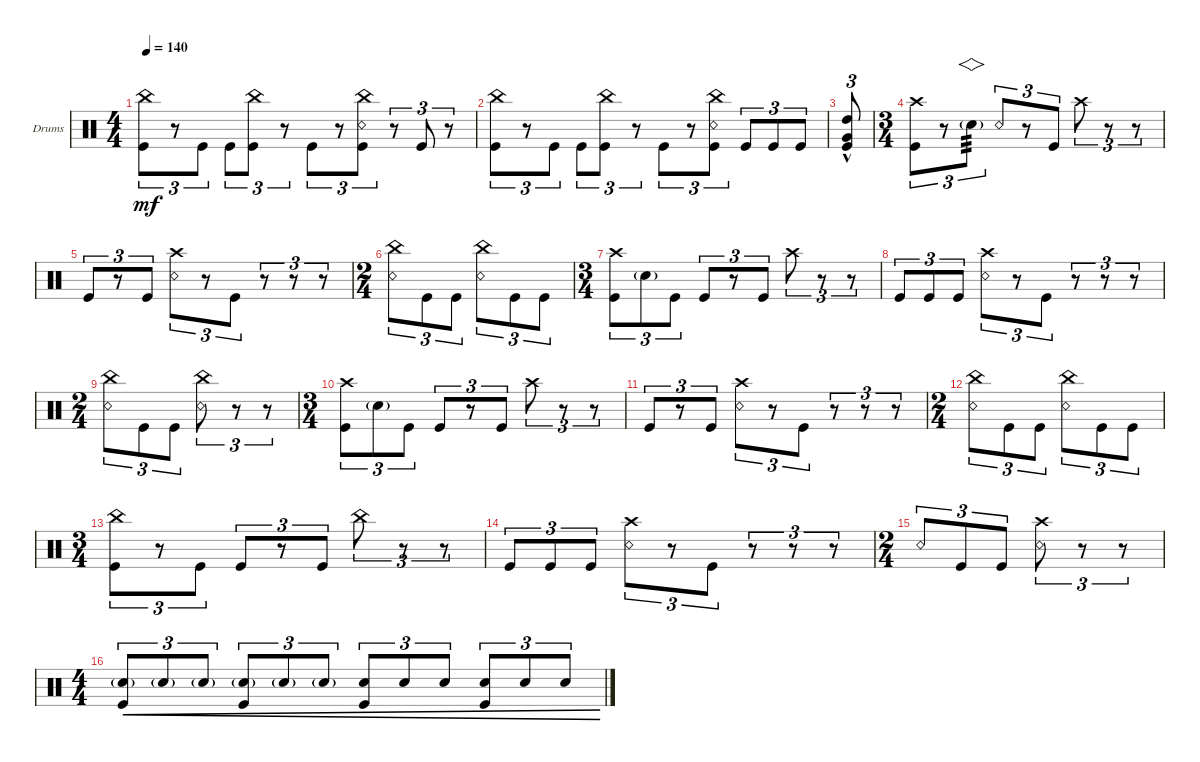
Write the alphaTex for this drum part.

\defaultSystemsLayout 4
\bracketExtendMode groupsimilarinstruments
\firstSystemTrackNameOrientation horizontal
\otherSystemsTrackNameOrientation horizontal
\track ("Drumkit" "Drums") {instrument percussion}
\staff {score}
\articulation defaults
\ts (4 4)
\tempo 140
\clef neutral
\ks c
("China (hit)" "Kick (hit)").8{tu (3 2) dy mf} r.8{tu (3 2)} "Kick (hit)".8{tu (3 2)} "Kick (hit)".8{tu (3 2)} ("Kick (hit)" "China (hit)").8{tu (3 2)} r.8{tu (3 2)} "Kick (hit)".8{tu (3 2)} r.8{tu (3 2)} ("Kick (hit)" "Snare (rim shot)" "China (hit)").8{tu (3 2)} r.8{tu (3 2)} "Kick (hit)".8{tu (3 2)} r.8{tu (3 2)} |
("China (hit)" "Kick (hit)").8{tu (3 2)} r.8{tu (3 2)} "Kick (hit)".8{tu (3 2)} "Kick (hit)".8{tu (3 2)} ("Kick (hit)" "China (hit)").8{tu (3 2)} r.8{tu (3 2)} "Kick (hit)".8{tu (3 2)} r.8{tu (3 2)} ("Kick (hit)" "Snare (rim shot)" "China (hit)").8{tu (3 2)} "Kick (hit)".8{tu (3 2)} "Kick (hit)".8{tu (3 2)} "Kick (hit)".8{tu (3 2)} |
("Kick (hit)"{hac} "Very Low Tom (hit)"{hac} "High Tom (hit)"{hac}).8{tu (3 2)} |
\ts (3 4)
("Kick (hit)" "Crash high (hit)").8{tu (3 2)} r.8{tu (3 2)} "Snare (hit) 2"{g}.8{vs tu (3 2) tp 3} "Snare (rim shot)".8{tu (3 2)} r.8{tu (3 2)} "Kick (hit)".8{tu (3 2)} "Crash high (hit)".8{tu (3 2)} r.8{tu (3 2)} r.8{tu (3 2)} |
"Kick (hit)".8{tu (3 2)} r.8{tu (3 2)} "Kick (hit)".8{tu (3 2)} ("Crash high (hit)" "Snare (rim shot)").8{tu (3 2)} r.8{tu (3 2)} "Kick (hit)".8{tu (3 2)} r.8{tu (3 2)} r.8{tu (3 2)} r.8{tu (3 2)} |
\ts (2 4)
("Snare (rim shot)" "China (hit)").8{tu (3 2)} "Kick (hit)".8{tu (3 2)} "Kick (hit)".8{tu (3 2)} ("Snare (rim shot)" "China (hit)").8{tu (3 2)} "Kick (hit)".8{tu (3 2)} "Kick (hit)".8{tu (3 2)} |
\ts (3 4)
("Kick (hit)" "Crash high (hit)").8{tu (3 2)} "Snare (hit) 2"{g}.8{tu (3 2)} "Kick (hit)".8{tu (3 2)} "Kick (hit)".8{tu (3 2)} r.8{tu (3 2)} "Kick (hit)".8{tu (3 2)} "Crash high (hit)".8{tu (3 2)} r.8{tu (3 2)} r.8{tu (3 2)} |
"Kick (hit)".8{tu (3 2)} "Kick (hit)".8{tu (3 2)} "Kick (hit)".8{tu (3 2)} ("Crash high (hit)" "Snare (rim shot)").8{tu (3 2)} r.8{tu (3 2)} "Kick (hit)".8{tu (3 2)} r.8{tu (3 2)} r.8{tu (3 2)} r.8{tu (3 2)} |
\ts (2 4)
("Snare (rim shot)" "China (hit)").8{tu (3 2)} "Kick (hit)".8{tu (3 2)} "Kick (hit)".8{tu (3 2)} ("Snare (rim shot)" "China (hit)").8{tu (3 2)} r.8{tu (3 2)} r.8{tu (3 2)} |
\ts (3 4)
("Kick (hit)" "Crash high (hit)").8{tu (3 2)} "Snare (hit) 2"{g}.8{tu (3 2)} "Kick (hit)".8{tu (3 2)} "Kick (hit)".8{tu (3 2)} r.8{tu (3 2)} "Kick (hit)".8{tu (3 2)} "Crash high (hit)".8{tu (3 2)} r.8{tu (3 2)} r.8{tu (3 2)} |
"Kick (hit)".8{tu (3 2)} r.8{tu (3 2)} "Kick (hit)".8{tu (3 2)} ("Crash high (hit)" "Snare (rim shot)").8{tu (3 2)} r.8{tu (3 2)} "Kick (hit)".8{tu (3 2)} r.8{tu (3 2)} r.8{tu (3 2)} r.8{tu (3 2)} |
\ts (2 4)
("Snare (rim shot)" "China (hit)").8{tu (3 2)} "Kick (hit)".8{tu (3 2)} "Kick (hit)".8{tu (3 2)} ("Snare (rim shot)" "China (hit)").8{tu (3 2)} "Kick (hit)".8{tu (3 2)} "Kick (hit)".8{tu (3 2)} |
\ts (3 4)
("Kick (hit)" "China (hit)").8{tu (3 2)} r.8{tu (3 2)} "Kick (hit)".8{tu (3 2)} "Kick (hit)".8{tu (3 2)} r.8{tu (3 2)} "Kick (hit)".8{tu (3 2)} "China (hit)".8{tu (3 2)} r.8{tu (3 2)} r.8{tu (3 2)} |
"Kick (hit)".8{tu (3 2)} "Kick (hit)".8{tu (3 2)} "Kick (hit)".8{tu (3 2)} ("Crash high (hit)" "Snare (rim shot)").8{tu (3 2)} r.8{tu (3 2)} "Kick (hit)".8{tu (3 2)} r.8{tu (3 2)} r.8{tu (3 2)} r.8{tu (3 2)} |
\ts (2 4)
"Snare (rim shot)".8{tu (3 2)} "Kick (hit)".8{tu (3 2)} "Kick (hit)".8{tu (3 2)} ("Crash high (hit)" "Snare (rim shot)").8{tu (3 2)} r.8{tu (3 2)} r.8{tu (3 2)} |
\ts (4 4)
("Snare (hit) 2"{g} "Kick (hit)").8{tu (3 2) cre} "Snare (hit) 2"{g}.8{tu (3 2) cre} "Snare (hit) 2"{g}.8{tu (3 2) cre} ("Snare (hit) 2"{g} "Kick (hit)").8{tu (3 2) cre} "Snare (hit) 2"{g}.8{tu (3 2) cre} "Snare (hit) 2"{g}.8{tu (3 2) cre} ("Snare (hit) 2" "Kick (hit)").8{tu (3 2) cre} "Snare (hit) 2".8{tu (3 2) cre} "Snare (hit) 2".8{tu (3 2) cre} ("Snare (hit) 2" "Kick (hit)").8{tu (3 2) cre} "Snare (hit) 2".8{tu (3 2) cre} "Snare (hit) 2".8{tu (3 2) cre}
